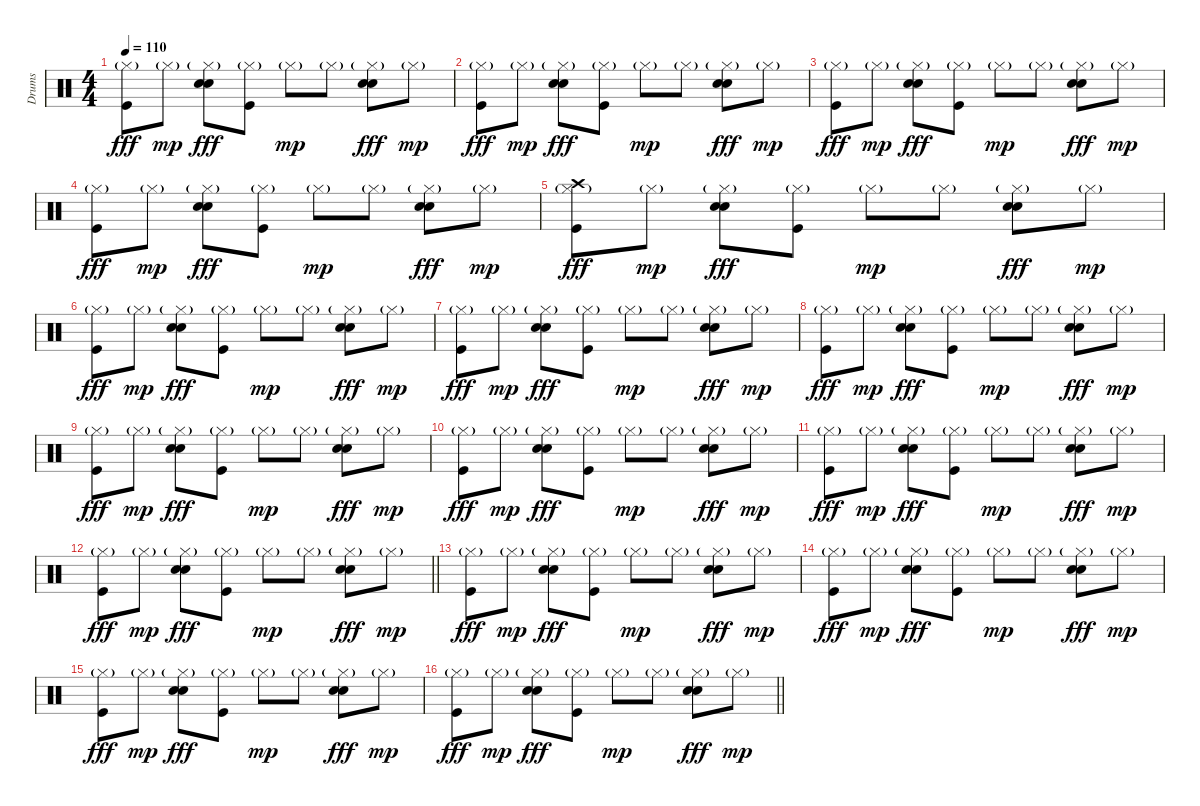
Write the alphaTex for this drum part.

\track ("Drums" "Drums") {instrument percussion}
\staff {score}
\articulation defaults
\ts (4 4)
\tempo 110
\clef neutral
\ks c
("Hi-Hat (closed)"{g} "Kick (hit)").8{dy fff} "Hi-Hat (closed)"{g}.8{dy mp} ("Hi-Hat (closed)"{g} "Electric Snare (hit)" "Hand Clap (hit)").8{dy fff} ("Hi-Hat (closed)"{g} "Kick (hit)").8 "Hi-Hat (closed)"{g}.8{dy mp} "Hi-Hat (closed)"{g}.8 ("Hi-Hat (closed)"{g} "Electric Snare (hit)" "Hand Clap (hit)").8{dy fff} "Hi-Hat (closed)"{g}.8{dy mp} |
("Hi-Hat (closed)"{g} "Kick (hit)").8{dy fff} "Hi-Hat (closed)"{g}.8{dy mp} ("Hi-Hat (closed)"{g} "Electric Snare (hit)" "Hand Clap (hit)").8{dy fff} ("Hi-Hat (closed)"{g} "Kick (hit)").8 "Hi-Hat (closed)"{g}.8{dy mp} "Hi-Hat (closed)"{g}.8 ("Hi-Hat (closed)"{g} "Electric Snare (hit)" "Hand Clap (hit)").8{dy fff} "Hi-Hat (closed)"{g}.8{dy mp} |
("Hi-Hat (closed)"{g} "Kick (hit)").8{dy fff} "Hi-Hat (closed)"{g}.8{dy mp} ("Hi-Hat (closed)"{g} "Electric Snare (hit)" "Hand Clap (hit)").8{dy fff} ("Hi-Hat (closed)"{g} "Kick (hit)").8 "Hi-Hat (closed)"{g}.8{dy mp} "Hi-Hat (closed)"{g}.8 ("Hi-Hat (closed)"{g} "Electric Snare (hit)" "Hand Clap (hit)").8{dy fff} "Hi-Hat (closed)"{g}.8{dy mp} |
("Hi-Hat (closed)"{g} "Kick (hit)").8{dy fff} "Hi-Hat (closed)"{g}.8{dy mp} ("Hi-Hat (closed)"{g} "Electric Snare (hit)" "Hand Clap (hit)").8{dy fff} ("Hi-Hat (closed)"{g} "Kick (hit)").8 "Hi-Hat (closed)"{g}.8{dy mp} "Hi-Hat (closed)"{g}.8 ("Hi-Hat (closed)"{g} "Electric Snare (hit)" "Hand Clap (hit)").8{dy fff} "Hi-Hat (closed)"{g}.8{dy mp} |
("Hi-Hat (closed)"{g} "Kick (hit)" "Crash high (hit)").8{dy fff} "Hi-Hat (closed)"{g}.8{dy mp} ("Hi-Hat (closed)"{g} "Electric Snare (hit)" "Hand Clap (hit)").8{dy fff} ("Hi-Hat (closed)"{g} "Kick (hit)").8 "Hi-Hat (closed)"{g}.8{dy mp} "Hi-Hat (closed)"{g}.8 ("Hi-Hat (closed)"{g} "Electric Snare (hit)" "Hand Clap (hit)").8{dy fff} "Hi-Hat (closed)"{g}.8{dy mp} |
("Hi-Hat (closed)"{g} "Kick (hit)").8{dy fff} "Hi-Hat (closed)"{g}.8{dy mp} ("Hi-Hat (closed)"{g} "Electric Snare (hit)" "Hand Clap (hit)").8{dy fff} ("Hi-Hat (closed)"{g} "Kick (hit)").8 "Hi-Hat (closed)"{g}.8{dy mp} "Hi-Hat (closed)"{g}.8 ("Hi-Hat (closed)"{g} "Electric Snare (hit)" "Hand Clap (hit)").8{dy fff} "Hi-Hat (closed)"{g}.8{dy mp} |
("Hi-Hat (closed)"{g} "Kick (hit)").8{dy fff} "Hi-Hat (closed)"{g}.8{dy mp} ("Hi-Hat (closed)"{g} "Electric Snare (hit)" "Hand Clap (hit)").8{dy fff} ("Hi-Hat (closed)"{g} "Kick (hit)").8 "Hi-Hat (closed)"{g}.8{dy mp} "Hi-Hat (closed)"{g}.8 ("Hi-Hat (closed)"{g} "Electric Snare (hit)" "Hand Clap (hit)").8{dy fff} "Hi-Hat (closed)"{g}.8{dy mp} |
("Hi-Hat (closed)"{g} "Kick (hit)").8{dy fff} "Hi-Hat (closed)"{g}.8{dy mp} ("Hi-Hat (closed)"{g} "Electric Snare (hit)" "Hand Clap (hit)").8{dy fff} ("Hi-Hat (closed)"{g} "Kick (hit)").8 "Hi-Hat (closed)"{g}.8{dy mp} "Hi-Hat (closed)"{g}.8 ("Hi-Hat (closed)"{g} "Electric Snare (hit)" "Hand Clap (hit)").8{dy fff} "Hi-Hat (closed)"{g}.8{dy mp} |
("Hi-Hat (closed)"{g} "Kick (hit)").8{dy fff} "Hi-Hat (closed)"{g}.8{dy mp} ("Hi-Hat (closed)"{g} "Electric Snare (hit)" "Hand Clap (hit)").8{dy fff} ("Hi-Hat (closed)"{g} "Kick (hit)").8 "Hi-Hat (closed)"{g}.8{dy mp} "Hi-Hat (closed)"{g}.8 ("Hi-Hat (closed)"{g} "Electric Snare (hit)" "Hand Clap (hit)").8{dy fff} "Hi-Hat (closed)"{g}.8{dy mp} |
("Hi-Hat (closed)"{g} "Kick (hit)").8{dy fff} "Hi-Hat (closed)"{g}.8{dy mp} ("Hi-Hat (closed)"{g} "Electric Snare (hit)" "Hand Clap (hit)").8{dy fff} ("Hi-Hat (closed)"{g} "Kick (hit)").8 "Hi-Hat (closed)"{g}.8{dy mp} "Hi-Hat (closed)"{g}.8 ("Hi-Hat (closed)"{g} "Electric Snare (hit)" "Hand Clap (hit)").8{dy fff} "Hi-Hat (closed)"{g}.8{dy mp} |
("Hi-Hat (closed)"{g} "Kick (hit)").8{dy fff} "Hi-Hat (closed)"{g}.8{dy mp} ("Hi-Hat (closed)"{g} "Electric Snare (hit)" "Hand Clap (hit)").8{dy fff} ("Hi-Hat (closed)"{g} "Kick (hit)").8 "Hi-Hat (closed)"{g}.8{dy mp} "Hi-Hat (closed)"{g}.8 ("Hi-Hat (closed)"{g} "Electric Snare (hit)" "Hand Clap (hit)").8{dy fff} "Hi-Hat (closed)"{g}.8{dy mp} |
\barLineRight lightlight
("Hi-Hat (closed)"{g} "Kick (hit)").8{dy fff} "Hi-Hat (closed)"{g}.8{dy mp} ("Hi-Hat (closed)"{g} "Electric Snare (hit)" "Hand Clap (hit)").8{dy fff} ("Hi-Hat (closed)"{g} "Kick (hit)").8 "Hi-Hat (closed)"{g}.8{dy mp} "Hi-Hat (closed)"{g}.8 ("Hi-Hat (closed)"{g} "Electric Snare (hit)" "Hand Clap (hit)").8{dy fff} "Hi-Hat (closed)"{g}.8{dy mp} |
("Hi-Hat (closed)"{g} "Kick (hit)").8{dy fff} "Hi-Hat (closed)"{g}.8{dy mp} ("Hi-Hat (closed)"{g} "Electric Snare (hit)" "Hand Clap (hit)").8{dy fff} ("Hi-Hat (closed)"{g} "Kick (hit)").8 "Hi-Hat (closed)"{g}.8{dy mp} "Hi-Hat (closed)"{g}.8 ("Hi-Hat (closed)"{g} "Electric Snare (hit)" "Hand Clap (hit)").8{dy fff} "Hi-Hat (closed)"{g}.8{dy mp} |
("Hi-Hat (closed)"{g} "Kick (hit)").8{dy fff} "Hi-Hat (closed)"{g}.8{dy mp} ("Hi-Hat (closed)"{g} "Electric Snare (hit)" "Hand Clap (hit)").8{dy fff} ("Hi-Hat (closed)"{g} "Kick (hit)").8 "Hi-Hat (closed)"{g}.8{dy mp} "Hi-Hat (closed)"{g}.8 ("Hi-Hat (closed)"{g} "Electric Snare (hit)" "Hand Clap (hit)").8{dy fff} "Hi-Hat (closed)"{g}.8{dy mp} |
("Hi-Hat (closed)"{g} "Kick (hit)").8{dy fff} "Hi-Hat (closed)"{g}.8{dy mp} ("Hi-Hat (closed)"{g} "Electric Snare (hit)" "Hand Clap (hit)").8{dy fff} ("Hi-Hat (closed)"{g} "Kick (hit)").8 "Hi-Hat (closed)"{g}.8{dy mp} "Hi-Hat (closed)"{g}.8 ("Hi-Hat (closed)"{g} "Electric Snare (hit)" "Hand Clap (hit)").8{dy fff} "Hi-Hat (closed)"{g}.8{dy mp} |
\barLineRight lightlight
("Hi-Hat (closed)"{g} "Kick (hit)").8{dy fff} "Hi-Hat (closed)"{g}.8{dy mp} ("Hi-Hat (closed)"{g} "Electric Snare (hit)" "Hand Clap (hit)").8{dy fff} ("Hi-Hat (closed)"{g} "Kick (hit)").8 "Hi-Hat (closed)"{g}.8{dy mp} "Hi-Hat (closed)"{g}.8 ("Hi-Hat (closed)"{g} "Electric Snare (hit)" "Hand Clap (hit)").8{dy fff} "Hi-Hat (closed)"{g}.8{dy mp}
